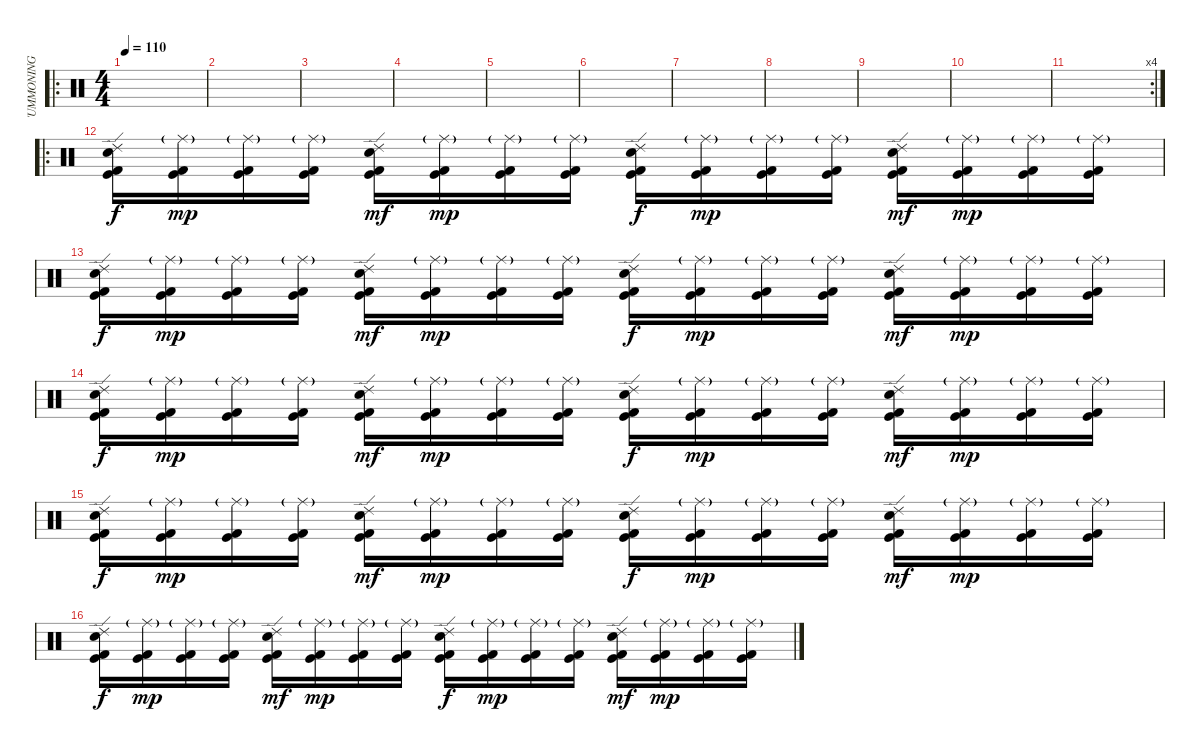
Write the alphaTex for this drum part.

\track ("SUMMONING" "SUMMONING") {instrument percussion}
\staff {score}
\articulation defaults
\ro
\ts (4 4)
\tempo 110
\clef neutral
\ks c
|
|
|
|
|
|
|
|
|
|
\rc 4
|
\ro
("Kick (hit)" "Ride (edge) 2" "Electric Snare (hit)" "Kick (hit) 2").16 ("Ride (middle)"{g} "Kick (hit)" "Kick (hit) 2").16{dy mp} ("Ride (middle)"{g} "Kick (hit)" "Kick (hit) 2").16 ("Ride (middle)"{g} "Kick (hit)" "Kick (hit) 2").16 ("Ride (edge) 2" "Kick (hit)" "Electric Snare (hit)" "Kick (hit) 2").16{dy mf} ("Ride (middle)"{g} "Kick (hit)" "Kick (hit) 2").16{dy mp} ("Ride (middle)"{g} "Kick (hit)" "Kick (hit) 2").16 ("Ride (middle)"{g} "Kick (hit)" "Kick (hit) 2").16 ("Kick (hit)" "Ride (edge) 2" "Electric Snare (hit)" "Kick (hit) 2").16{dy f} ("Ride (middle)"{g} "Kick (hit)" "Kick (hit) 2").16{dy mp} ("Ride (middle)"{g} "Kick (hit)" "Kick (hit) 2").16 ("Ride (middle)"{g} "Kick (hit)" "Kick (hit) 2").16 ("Ride (edge) 2" "Kick (hit)" "Electric Snare (hit)" "Kick (hit) 2").16{dy mf} ("Ride (middle)"{g} "Kick (hit)" "Kick (hit) 2").16{dy mp} ("Ride (middle)"{g} "Kick (hit)" "Kick (hit) 2").16 ("Ride (middle)"{g} "Kick (hit)" "Kick (hit) 2").16 |
("Kick (hit)" "Ride (edge) 2" "Electric Snare (hit)" "Kick (hit) 2").16{dy f} ("Ride (middle)"{g} "Kick (hit)" "Kick (hit) 2").16{dy mp} ("Ride (middle)"{g} "Kick (hit)" "Kick (hit) 2").16 ("Ride (middle)"{g} "Kick (hit)" "Kick (hit) 2").16 ("Ride (edge) 2" "Kick (hit)" "Electric Snare (hit)" "Kick (hit) 2").16{dy mf} ("Ride (middle)"{g} "Kick (hit)" "Kick (hit) 2").16{dy mp} ("Ride (middle)"{g} "Kick (hit)" "Kick (hit) 2").16 ("Ride (middle)"{g} "Kick (hit)" "Kick (hit) 2").16 ("Kick (hit)" "Ride (edge) 2" "Electric Snare (hit)" "Kick (hit) 2").16{dy f} ("Ride (middle)"{g} "Kick (hit)" "Kick (hit) 2").16{dy mp} ("Ride (middle)"{g} "Kick (hit)" "Kick (hit) 2").16 ("Ride (middle)"{g} "Kick (hit)" "Kick (hit) 2").16 ("Ride (edge) 2" "Kick (hit)" "Electric Snare (hit)" "Kick (hit) 2").16{dy mf} ("Ride (middle)"{g} "Kick (hit)" "Kick (hit) 2").16{dy mp} ("Ride (middle)"{g} "Kick (hit)" "Kick (hit) 2").16 ("Ride (middle)"{g} "Kick (hit)" "Kick (hit) 2").16 |
("Kick (hit)" "Ride (edge) 2" "Electric Snare (hit)" "Kick (hit) 2").16{dy f} ("Ride (middle)"{g} "Kick (hit)" "Kick (hit) 2").16{dy mp} ("Ride (middle)"{g} "Kick (hit)" "Kick (hit) 2").16 ("Ride (middle)"{g} "Kick (hit)" "Kick (hit) 2").16 ("Ride (edge) 2" "Kick (hit)" "Electric Snare (hit)" "Kick (hit) 2").16{dy mf} ("Ride (middle)"{g} "Kick (hit)" "Kick (hit) 2").16{dy mp} ("Ride (middle)"{g} "Kick (hit)" "Kick (hit) 2").16 ("Ride (middle)"{g} "Kick (hit)" "Kick (hit) 2").16 ("Kick (hit)" "Ride (edge) 2" "Electric Snare (hit)" "Kick (hit) 2").16{dy f} ("Ride (middle)"{g} "Kick (hit)" "Kick (hit) 2").16{dy mp} ("Ride (middle)"{g} "Kick (hit)" "Kick (hit) 2").16 ("Ride (middle)"{g} "Kick (hit)" "Kick (hit) 2").16 ("Ride (edge) 2" "Kick (hit)" "Electric Snare (hit)" "Kick (hit) 2").16{dy mf} ("Ride (middle)"{g} "Kick (hit)" "Kick (hit) 2").16{dy mp} ("Ride (middle)"{g} "Kick (hit)" "Kick (hit) 2").16 ("Ride (middle)"{g} "Kick (hit)" "Kick (hit) 2").16 |
("Kick (hit)" "Ride (edge) 2" "Electric Snare (hit)" "Kick (hit) 2").16{dy f} ("Ride (middle)"{g} "Kick (hit)" "Kick (hit) 2").16{dy mp} ("Ride (middle)"{g} "Kick (hit)" "Kick (hit) 2").16 ("Ride (middle)"{g} "Kick (hit)" "Kick (hit) 2").16 ("Ride (edge) 2" "Kick (hit)" "Electric Snare (hit)" "Kick (hit) 2").16{dy mf} ("Ride (middle)"{g} "Kick (hit)" "Kick (hit) 2").16{dy mp} ("Ride (middle)"{g} "Kick (hit)" "Kick (hit) 2").16 ("Ride (middle)"{g} "Kick (hit)" "Kick (hit) 2").16 ("Kick (hit)" "Ride (edge) 2" "Electric Snare (hit)" "Kick (hit) 2").16{dy f} ("Ride (middle)"{g} "Kick (hit)" "Kick (hit) 2").16{dy mp} ("Ride (middle)"{g} "Kick (hit)" "Kick (hit) 2").16 ("Ride (middle)"{g} "Kick (hit)" "Kick (hit) 2").16 ("Ride (edge) 2" "Kick (hit)" "Electric Snare (hit)" "Kick (hit) 2").16{dy mf} ("Ride (middle)"{g} "Kick (hit)" "Kick (hit) 2").16{dy mp} ("Ride (middle)"{g} "Kick (hit)" "Kick (hit) 2").16 ("Ride (middle)"{g} "Kick (hit)" "Kick (hit) 2").16 |
("Kick (hit)" "Ride (edge) 2" "Electric Snare (hit)" "Kick (hit) 2").16{dy f} ("Ride (middle)"{g} "Kick (hit)" "Kick (hit) 2").16{dy mp} ("Ride (middle)"{g} "Kick (hit)" "Kick (hit) 2").16 ("Ride (middle)"{g} "Kick (hit)" "Kick (hit) 2").16 ("Ride (edge) 2" "Kick (hit)" "Electric Snare (hit)" "Kick (hit) 2").16{dy mf} ("Ride (middle)"{g} "Kick (hit)" "Kick (hit) 2").16{dy mp} ("Ride (middle)"{g} "Kick (hit)" "Kick (hit) 2").16 ("Ride (middle)"{g} "Kick (hit)" "Kick (hit) 2").16 ("Kick (hit)" "Ride (edge) 2" "Electric Snare (hit)" "Kick (hit) 2").16{dy f} ("Ride (middle)"{g} "Kick (hit)" "Kick (hit) 2").16{dy mp} ("Ride (middle)"{g} "Kick (hit)" "Kick (hit) 2").16 ("Ride (middle)"{g} "Kick (hit)" "Kick (hit) 2").16 ("Ride (edge) 2" "Kick (hit)" "Electric Snare (hit)" "Kick (hit) 2").16{dy mf} ("Ride (middle)"{g} "Kick (hit)" "Kick (hit) 2").16{dy mp} ("Ride (middle)"{g} "Kick (hit)" "Kick (hit) 2").16 ("Ride (middle)"{g} "Kick (hit)" "Kick (hit) 2").16
